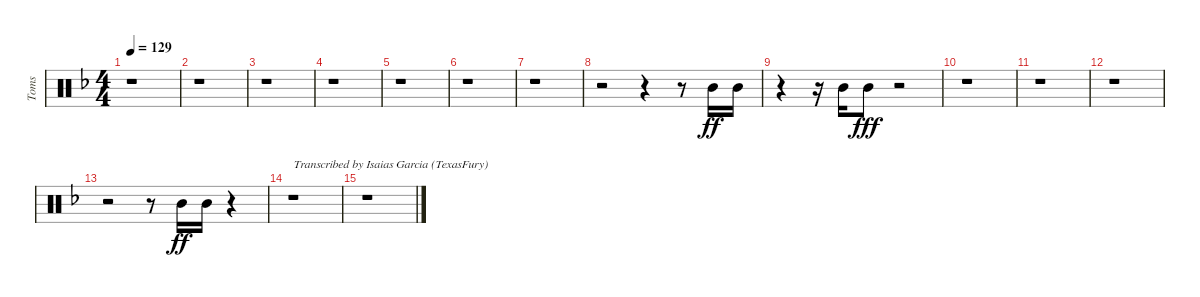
\track ("Toms" "Toms") {instrument percussion}
\staff {score}
\articulation defaults
\ts (4 4)
\tempo 129
\clef neutral
\ks dminor
r.1{dy fff} |
r.1 |
r.1 |
r.1 |
r.1 |
r.1 |
r.1 |
r.2 r.4 r.8{balance 10} "Mid Tom (hit)".16{dy ff} "Mid Tom (hit)".16 |
r.4 r.16 "Mid Tom (hit)".16 "Mid Tom (hit)".8{dy fff} r.2 |
r.1 |
r.1 |
r.1 |
r.2 r.8 "Mid Tom (hit)".16{dy ff} "Mid Tom (hit)".16 r.4 |
r.1{txt "Transcribed by Isaias Garcia (TexasFury)"} |
r.1
